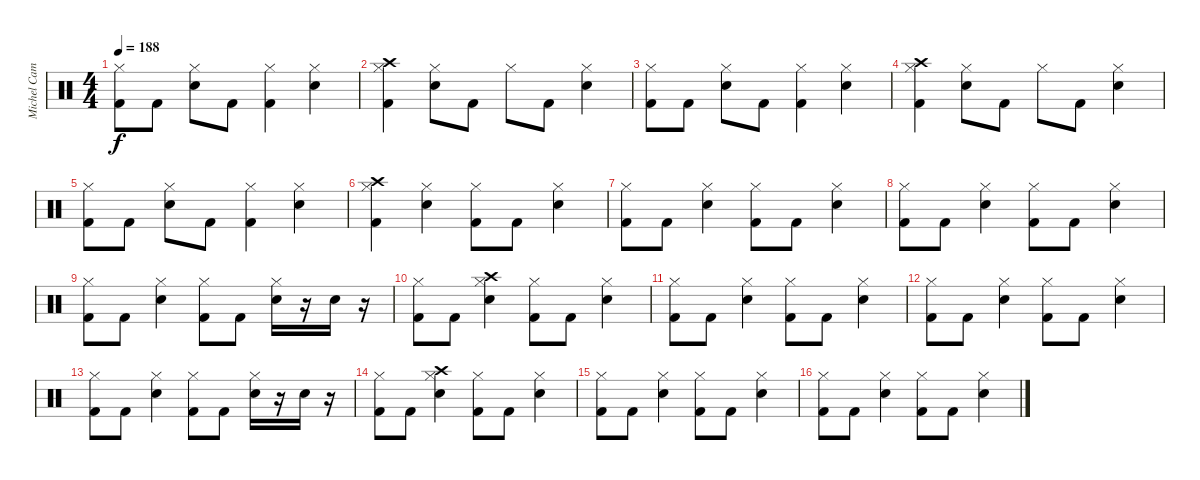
\track ("Michel Camiade" "Michel Cam") {instrument percussion}
\staff {score}
\articulation defaults
\ts (4 4)
\tempo 188
\clef neutral
\ks c
("Hi-Hat (closed)" "Kick (hit) 2").8{dy f} "Kick (hit) 2".8 ("Hi-Hat (closed)" "Snare (hit) 2").8 "Kick (hit) 2".8 ("Hi-Hat (closed)" "Kick (hit) 2").4 ("Hi-Hat (closed)" "Snare (hit) 2").4 |
("Crash high (hit)" "Hi-Hat (closed)" "Kick (hit) 2").4 ("Hi-Hat (closed)" "Snare (hit) 2").8 "Kick (hit) 2".8 "Hi-Hat (closed)".8 "Kick (hit) 2".8 ("Hi-Hat (closed)" "Snare (hit) 2").4 |
("Hi-Hat (closed)" "Kick (hit) 2").8 "Kick (hit) 2".8 ("Hi-Hat (closed)" "Snare (hit) 2").8 "Kick (hit) 2".8 ("Hi-Hat (closed)" "Kick (hit) 2").4 ("Hi-Hat (closed)" "Snare (hit) 2").4 |
("Crash high (hit)" "Hi-Hat (closed)" "Kick (hit) 2").4 ("Hi-Hat (closed)" "Snare (hit) 2").8 "Kick (hit) 2".8 "Hi-Hat (closed)".8 "Kick (hit) 2".8 ("Hi-Hat (closed)" "Snare (hit) 2").4 |
("Hi-Hat (closed)" "Kick (hit) 2").8 "Kick (hit) 2".8 ("Hi-Hat (closed)" "Snare (hit) 2").8 "Kick (hit) 2".8 ("Hi-Hat (closed)" "Kick (hit) 2").4 ("Hi-Hat (closed)" "Snare (hit) 2").4 |
("Crash high (hit)" "Hi-Hat (closed)" "Kick (hit) 2").4 ("Hi-Hat (closed)" "Snare (hit) 2").4 ("Hi-Hat (closed)" "Kick (hit) 2").8 "Kick (hit) 2".8 ("Hi-Hat (closed)" "Snare (hit) 2").4 |
("Hi-Hat (closed)" "Kick (hit) 2").8 "Kick (hit) 2".8 ("Hi-Hat (closed)" "Snare (hit) 2").4 ("Hi-Hat (closed)" "Kick (hit) 2").8 "Kick (hit) 2".8 ("Hi-Hat (closed)" "Snare (hit) 2").4 |
("Hi-Hat (closed)" "Kick (hit) 2").8 "Kick (hit) 2".8 ("Hi-Hat (closed)" "Snare (hit) 2").4 ("Hi-Hat (closed)" "Kick (hit) 2").8 "Kick (hit) 2".8 ("Hi-Hat (closed)" "Snare (hit) 2").4 |
("Hi-Hat (closed)" "Kick (hit) 2").8 "Kick (hit) 2".8 ("Hi-Hat (closed)" "Snare (hit) 2").4 ("Hi-Hat (closed)" "Kick (hit) 2").8 "Kick (hit) 2".8 ("Hi-Hat (closed)" "Snare (hit) 2").16 r.16 "Snare (hit) 2".16 r.16 |
("Hi-Hat (closed)" "Kick (hit) 2").8 "Kick (hit) 2".8 ("Crash high (hit)" "Hi-Hat (closed)" "Snare (hit) 2").4 ("Hi-Hat (closed)" "Kick (hit) 2").8 "Kick (hit) 2".8 ("Hi-Hat (closed)" "Snare (hit) 2").4 |
("Hi-Hat (closed)" "Kick (hit) 2").8 "Kick (hit) 2".8 ("Hi-Hat (closed)" "Snare (hit) 2").4 ("Hi-Hat (closed)" "Kick (hit) 2").8 "Kick (hit) 2".8 ("Hi-Hat (closed)" "Snare (hit) 2").4 |
("Hi-Hat (closed)" "Kick (hit) 2").8 "Kick (hit) 2".8 ("Hi-Hat (closed)" "Snare (hit) 2").4 ("Hi-Hat (closed)" "Kick (hit) 2").8 "Kick (hit) 2".8 ("Hi-Hat (closed)" "Snare (hit) 2").4 |
("Hi-Hat (closed)" "Kick (hit) 2").8 "Kick (hit) 2".8 ("Hi-Hat (closed)" "Snare (hit) 2").4 ("Hi-Hat (closed)" "Kick (hit) 2").8 "Kick (hit) 2".8 ("Hi-Hat (closed)" "Snare (hit) 2").16 r.16 "Snare (hit) 2".16 r.16 |
("Hi-Hat (closed)" "Kick (hit) 2").8 "Kick (hit) 2".8 ("Crash high (hit)" "Hi-Hat (closed)" "Snare (hit) 2").4 ("Hi-Hat (closed)" "Kick (hit) 2").8 "Kick (hit) 2".8 ("Hi-Hat (closed)" "Snare (hit) 2").4 |
("Hi-Hat (closed)" "Kick (hit) 2").8 "Kick (hit) 2".8 ("Hi-Hat (closed)" "Snare (hit) 2").4 ("Hi-Hat (closed)" "Kick (hit) 2").8 "Kick (hit) 2".8 ("Hi-Hat (closed)" "Snare (hit) 2").4 |
("Hi-Hat (closed)" "Kick (hit) 2").8 "Kick (hit) 2".8 ("Hi-Hat (closed)" "Snare (hit) 2").4 ("Hi-Hat (closed)" "Kick (hit) 2").8 "Kick (hit) 2".8 ("Hi-Hat (closed)" "Snare (hit) 2").4
